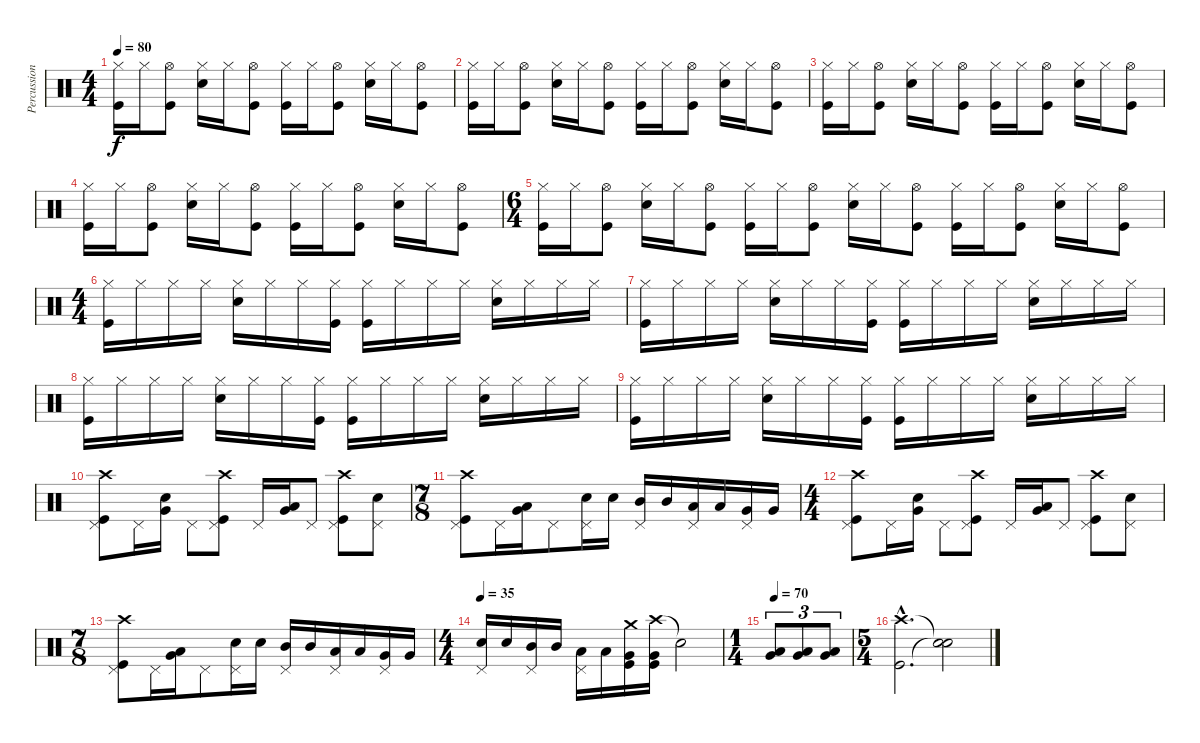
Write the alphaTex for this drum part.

\track ("Percussion" "Percussion") {instrument percussion}
\staff {score}
\articulation defaults
\ts (4 4)
\tempo 80
\clef neutral
\ks c
("Hi-Hat (closed)" "Kick (hit)").16{dy f} "Hi-Hat (closed)".16 ("Hi-Hat (open)" "Kick (hit)").8 ("Hi-Hat (closed)" "Snare (hit) 2").16 "Hi-Hat (closed)".16 ("Hi-Hat (open)" "Kick (hit)").8 ("Hi-Hat (closed)" "Kick (hit)").16 "Hi-Hat (closed)".16 ("Hi-Hat (open)" "Kick (hit)").8 ("Hi-Hat (closed)" "Snare (hit) 2").16 "Hi-Hat (closed)".16 ("Hi-Hat (open)" "Kick (hit)").8 |
("Hi-Hat (closed)" "Kick (hit)").16 "Hi-Hat (closed)".16 ("Hi-Hat (open)" "Kick (hit)").8 ("Hi-Hat (closed)" "Snare (hit) 2").16 "Hi-Hat (closed)".16 ("Hi-Hat (open)" "Kick (hit)").8 ("Hi-Hat (closed)" "Kick (hit)").16 "Hi-Hat (closed)".16 ("Hi-Hat (open)" "Kick (hit)").8 ("Hi-Hat (closed)" "Snare (hit) 2").16 "Hi-Hat (closed)".16 ("Hi-Hat (open)" "Kick (hit)").8 |
("Hi-Hat (closed)" "Kick (hit)").16 "Hi-Hat (closed)".16 ("Hi-Hat (open)" "Kick (hit)").8 ("Hi-Hat (closed)" "Snare (hit) 2").16 "Hi-Hat (closed)".16 ("Hi-Hat (open)" "Kick (hit)").8 ("Hi-Hat (closed)" "Kick (hit)").16 "Hi-Hat (closed)".16 ("Hi-Hat (open)" "Kick (hit)").8 ("Hi-Hat (closed)" "Snare (hit) 2").16 "Hi-Hat (closed)".16 ("Hi-Hat (open)" "Kick (hit)").8 |
("Hi-Hat (closed)" "Kick (hit)").16 "Hi-Hat (closed)".16 ("Hi-Hat (open)" "Kick (hit)").8 ("Hi-Hat (closed)" "Snare (hit) 2").16 "Hi-Hat (closed)".16 ("Hi-Hat (open)" "Kick (hit)").8 ("Hi-Hat (closed)" "Kick (hit)").16 "Hi-Hat (closed)".16 ("Hi-Hat (open)" "Kick (hit)").8 ("Hi-Hat (closed)" "Snare (hit) 2").16 "Hi-Hat (closed)".16 ("Hi-Hat (open)" "Kick (hit)").8 |
\ts (6 4)
("Hi-Hat (closed)" "Kick (hit)").16 "Hi-Hat (closed)".16 ("Hi-Hat (open)" "Kick (hit)").8 ("Hi-Hat (closed)" "Snare (hit) 2").16 "Hi-Hat (closed)".16 ("Hi-Hat (open)" "Kick (hit)").8 ("Hi-Hat (closed)" "Kick (hit)").16 "Hi-Hat (closed)".16 ("Hi-Hat (open)" "Kick (hit)").8 ("Hi-Hat (closed)" "Snare (hit) 2").16 "Hi-Hat (closed)".16 ("Hi-Hat (open)" "Kick (hit)").8 ("Hi-Hat (closed)" "Kick (hit)").16 "Hi-Hat (closed)".16 ("Hi-Hat (open)" "Kick (hit)").8 ("Hi-Hat (closed)" "Snare (hit) 2").16 "Hi-Hat (closed)".16 ("Hi-Hat (open)" "Kick (hit)").8 |
\ts (4 4)
("Hi-Hat (closed)" "Kick (hit)").16 "Hi-Hat (closed)".16 "Hi-Hat (closed)".16 "Hi-Hat (closed)".16 ("Hi-Hat (closed)" "Snare (hit) 2").16 "Hi-Hat (closed)".16 "Hi-Hat (closed)".16 ("Hi-Hat (closed)" "Kick (hit)").16 ("Hi-Hat (closed)" "Kick (hit)").16 "Hi-Hat (closed)".16 "Hi-Hat (closed)".16 "Hi-Hat (closed)".16 ("Hi-Hat (closed)" "Snare (hit) 2").16 "Hi-Hat (closed)".16 "Hi-Hat (closed)".16 "Hi-Hat (closed)".16 |
("Hi-Hat (closed)" "Kick (hit)").16 "Hi-Hat (closed)".16 "Hi-Hat (closed)".16 "Hi-Hat (closed)".16 ("Hi-Hat (closed)" "Snare (hit) 2").16 "Hi-Hat (closed)".16 "Hi-Hat (closed)".16 ("Hi-Hat (closed)" "Kick (hit)").16 ("Hi-Hat (closed)" "Kick (hit)").16 "Hi-Hat (closed)".16 "Hi-Hat (closed)".16 "Hi-Hat (closed)".16 ("Hi-Hat (closed)" "Snare (hit) 2").16 "Hi-Hat (closed)".16 "Hi-Hat (closed)".16 "Hi-Hat (closed)".16 |
("Hi-Hat (closed)" "Kick (hit)").16 "Hi-Hat (closed)".16 "Hi-Hat (closed)".16 "Hi-Hat (closed)".16 ("Hi-Hat (closed)" "Snare (hit) 2").16 "Hi-Hat (closed)".16 "Hi-Hat (closed)".16 ("Hi-Hat (closed)" "Kick (hit)").16 ("Hi-Hat (closed)" "Kick (hit)").16 "Hi-Hat (closed)".16 "Hi-Hat (closed)".16 "Hi-Hat (closed)".16 ("Hi-Hat (closed)" "Snare (hit) 2").16 "Hi-Hat (closed)".16 "Hi-Hat (closed)".16 "Hi-Hat (closed)".16 |
("Hi-Hat (closed)" "Kick (hit)").16 "Hi-Hat (closed)".16 "Hi-Hat (closed)".16 "Hi-Hat (closed)".16 ("Hi-Hat (closed)" "Snare (hit) 2").16 "Hi-Hat (closed)".16 "Hi-Hat (closed)".16 ("Hi-Hat (closed)" "Kick (hit)").16 ("Hi-Hat (closed)" "Kick (hit)").16 "Hi-Hat (closed)".16 "Hi-Hat (closed)".16 "Hi-Hat (closed)".16 ("Hi-Hat (closed)" "Snare (hit) 2").16 "Hi-Hat (closed)".16 "Hi-Hat (closed)".16 "Hi-Hat (closed)".16 |
("Pedal Hi-Hat (hit)" "Crash high (hit)" "Kick (hit)").8 "Pedal Hi-Hat (hit)".16 ("Snare (hit) 2" "Very Low Tom (hit)").16 "Pedal Hi-Hat (hit)".8 ("Pedal Hi-Hat (hit)" "Crash high (hit)" "Kick (hit)").8 "Pedal Hi-Hat (hit)".16 ("Low Tom (hit)" "Very Low Tom (hit)").16 "Pedal Hi-Hat (hit)".8 ("Pedal Hi-Hat (hit)" "Crash high (hit)" "Kick (hit)").8 ("Pedal Hi-Hat (hit)" "Snare (hit) 2").8 |
\ts (7 8)
("Crash high (hit)" "Pedal Hi-Hat (hit)" "Kick (hit)").8 "Pedal Hi-Hat (hit)".16 ("Low Tom (hit)" "Very Low Tom (hit)").16 "Pedal Hi-Hat (hit)".8 ("Pedal Hi-Hat (hit)" "Snare (hit) 2").16 "Snare (hit) 2".16 ("Pedal Hi-Hat (hit)" "Mid Tom (hit)").16 "Mid Tom (hit)".16 ("Pedal Hi-Hat (hit)" "Low Tom (hit)").16 "Low Tom (hit)".16 ("Pedal Hi-Hat (hit)" "Very Low Tom (hit)").16 "Very Low Tom (hit)".16 |
\ts (4 4)
("Pedal Hi-Hat (hit)" "Crash high (hit)" "Kick (hit)").8 "Pedal Hi-Hat (hit)".16 ("Snare (hit) 2" "Very Low Tom (hit)").16 "Pedal Hi-Hat (hit)".8 ("Pedal Hi-Hat (hit)" "Crash high (hit)" "Kick (hit)").8 "Pedal Hi-Hat (hit)".16 ("Low Tom (hit)" "Very Low Tom (hit)").16 "Pedal Hi-Hat (hit)".8 ("Pedal Hi-Hat (hit)" "Crash high (hit)" "Kick (hit)").8 ("Pedal Hi-Hat (hit)" "Snare (hit) 2").8 |
\ts (7 8)
("Crash high (hit)" "Pedal Hi-Hat (hit)" "Kick (hit)").8 "Pedal Hi-Hat (hit)".16 ("Low Tom (hit)" "Very Low Tom (hit)").16 "Pedal Hi-Hat (hit)".8 ("Pedal Hi-Hat (hit)" "Snare (hit) 2").16 "Snare (hit) 2".16 ("Pedal Hi-Hat (hit)" "Mid Tom (hit)").16 "Mid Tom (hit)".16 ("Pedal Hi-Hat (hit)" "Low Tom (hit)").16 "Low Tom (hit)".16 ("Pedal Hi-Hat (hit)" "Very Low Tom (hit)").16 "Very Low Tom (hit)".16 |
\ts (4 4)
\tempo 35
("Pedal Hi-Hat (hit)" "Snare (hit) 2").16 "Snare (hit) 2".16 ("Pedal Hi-Hat (hit)" "Mid Tom (hit)").16 "Mid Tom (hit)".16 ("Pedal Hi-Hat (hit)" "Low Tom (hit)").16 "Low Tom (hit)".16 ("Crash medium (hit)" "Very Low Tom (hit)" "Kick (hit)").16 ("Crash high (hit)" "Very Low Tom (hit)" "Kick (hit)").16 "Snare (hit)"{t}.2 |
\ts (1 4)
\tempo 85
\tempo 70
("Low Tom (hit)" "Very Low Tom (hit)").8{tu (3 2)} ("Low Tom (hit)" "Very Low Tom (hit)").8{tu (3 2)} ("Low Tom (hit)" "Very Low Tom (hit)").8{tu (3 2)} |
\ts (5 4)
("Crash high (hit)"{hac} "Kick (hit)"{hac}).2{d} ("Snare (hit)"{t} "Snare (hit)"{t}).2
